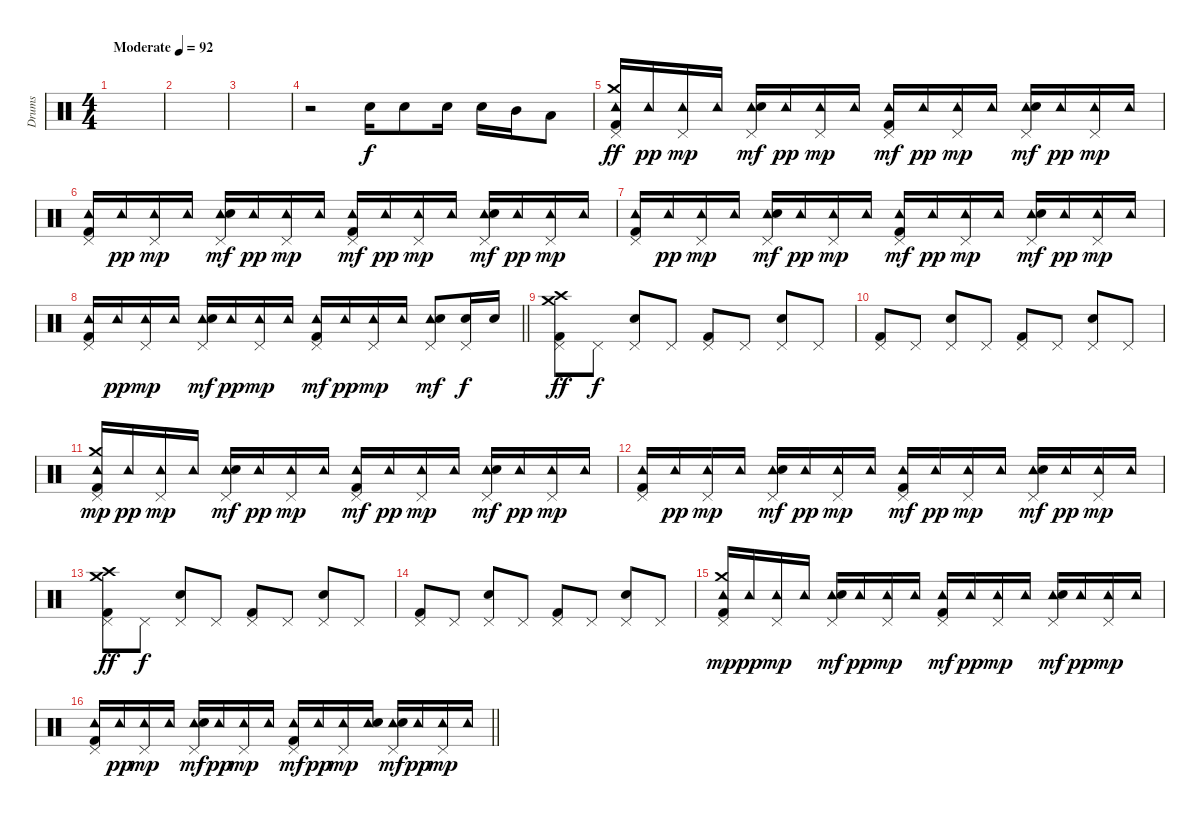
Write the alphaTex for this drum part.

\track ("Drums" "Drums") {instrument percussion}
\staff {score}
\articulation defaults
\ts (4 4)
\tempo (92 "Moderate")
\clef neutral
\ks c
|
|
|
r.2 "Electric Snare (hit)".16 "Electric Snare (hit)".8 "Electric Snare (hit)".16 "Electric Snare (hit)".16 "Mid Tom (hit)".16 "Low Tom (hit)".8 |
("Pedal Hi-Hat (hit)" "Tambourine (hit)" "Crash medium (hit)" "Kick (hit) 2").16{dy ff} "Tambourine (hit)".16{dy pp} ("Pedal Hi-Hat (hit)" "Tambourine (hit)").16{dy mp} "Tambourine (hit)".16 ("Pedal Hi-Hat (hit)" "Tambourine (hit)" "Electric Snare (hit)").16{dy mf} "Tambourine (hit)".16{dy pp} ("Pedal Hi-Hat (hit)" "Tambourine (hit)").16{dy mp} "Tambourine (hit)".16 ("Pedal Hi-Hat (hit)" "Tambourine (hit)" "Kick (hit) 2").16{dy mf} "Tambourine (hit)".16{dy pp} ("Pedal Hi-Hat (hit)" "Tambourine (hit)").16{dy mp} "Tambourine (hit)".16 ("Pedal Hi-Hat (hit)" "Tambourine (hit)" "Electric Snare (hit)").16{dy mf} "Tambourine (hit)".16{dy pp} ("Pedal Hi-Hat (hit)" "Tambourine (hit)").16{dy mp} "Tambourine (hit)".16 |
("Pedal Hi-Hat (hit)" "Tambourine (hit)" "Kick (hit) 2").16 "Tambourine (hit)".16{dy pp} ("Pedal Hi-Hat (hit)" "Tambourine (hit)").16{dy mp} "Tambourine (hit)".16 ("Pedal Hi-Hat (hit)" "Tambourine (hit)" "Electric Snare (hit)").16{dy mf} "Tambourine (hit)".16{dy pp} ("Pedal Hi-Hat (hit)" "Tambourine (hit)").16{dy mp} "Tambourine (hit)".16 ("Pedal Hi-Hat (hit)" "Tambourine (hit)" "Kick (hit) 2").16{dy mf} "Tambourine (hit)".16{dy pp} ("Pedal Hi-Hat (hit)" "Tambourine (hit)").16{dy mp} "Tambourine (hit)".16 ("Pedal Hi-Hat (hit)" "Tambourine (hit)" "Electric Snare (hit)").16{dy mf} "Tambourine (hit)".16{dy pp} ("Pedal Hi-Hat (hit)" "Tambourine (hit)").16{dy mp} "Tambourine (hit)".16 |
("Pedal Hi-Hat (hit)" "Tambourine (hit)" "Kick (hit) 2").16 "Tambourine (hit)".16{dy pp} ("Pedal Hi-Hat (hit)" "Tambourine (hit)").16{dy mp} "Tambourine (hit)".16 ("Pedal Hi-Hat (hit)" "Tambourine (hit)" "Electric Snare (hit)").16{dy mf} "Tambourine (hit)".16{dy pp} ("Pedal Hi-Hat (hit)" "Tambourine (hit)").16{dy mp} "Tambourine (hit)".16 ("Pedal Hi-Hat (hit)" "Tambourine (hit)" "Kick (hit) 2").16{dy mf} "Tambourine (hit)".16{dy pp} ("Pedal Hi-Hat (hit)" "Tambourine (hit)").16{dy mp} "Tambourine (hit)".16 ("Pedal Hi-Hat (hit)" "Tambourine (hit)" "Electric Snare (hit)").16{dy mf} "Tambourine (hit)".16{dy pp} ("Pedal Hi-Hat (hit)" "Tambourine (hit)").16{dy mp} "Tambourine (hit)".16 |
\barLineRight lightlight
("Pedal Hi-Hat (hit)" "Tambourine (hit)" "Kick (hit) 2").16 "Tambourine (hit)".16{dy pp} ("Pedal Hi-Hat (hit)" "Tambourine (hit)").16{dy mp} "Tambourine (hit)".16 ("Pedal Hi-Hat (hit)" "Tambourine (hit)" "Electric Snare (hit)").16{dy mf} "Tambourine (hit)".16{dy pp} ("Pedal Hi-Hat (hit)" "Tambourine (hit)").16{dy mp} "Tambourine (hit)".16 ("Pedal Hi-Hat (hit)" "Tambourine (hit)" "Kick (hit) 2").16{dy mf} "Tambourine (hit)".16{dy pp} ("Pedal Hi-Hat (hit)" "Tambourine (hit)").16{dy mp} "Tambourine (hit)".16 ("Pedal Hi-Hat (hit)" "Tambourine (hit)" "Electric Snare (hit)").8{dy mf} ("Pedal Hi-Hat (hit)" "Electric Snare (hit)").16{dy f} "Electric Snare (hit)".16 |
("Pedal Hi-Hat (hit)" "Crash high (hit)" "Crash medium (hit)" "Kick (hit) 2").8{dy ff} "Pedal Hi-Hat (hit)".8{dy f} ("Pedal Hi-Hat (hit)" "Electric Snare (hit)").8 "Pedal Hi-Hat (hit)".8 ("Pedal Hi-Hat (hit)" "Kick (hit) 2").8 "Pedal Hi-Hat (hit)".8 ("Pedal Hi-Hat (hit)" "Electric Snare (hit)").8 "Pedal Hi-Hat (hit)".8 |
("Pedal Hi-Hat (hit)" "Kick (hit) 2").8 "Pedal Hi-Hat (hit)".8 ("Pedal Hi-Hat (hit)" "Electric Snare (hit)").8 "Pedal Hi-Hat (hit)".8 ("Pedal Hi-Hat (hit)" "Kick (hit) 2").8 "Pedal Hi-Hat (hit)".8 ("Pedal Hi-Hat (hit)" "Electric Snare (hit)").8 "Pedal Hi-Hat (hit)".8 |
("Pedal Hi-Hat (hit)" "Tambourine (hit)" "Crash medium (hit)" "Kick (hit) 2").16{dy mp} "Tambourine (hit)".16{dy pp} ("Pedal Hi-Hat (hit)" "Tambourine (hit)").16{dy mp} "Tambourine (hit)".16 ("Pedal Hi-Hat (hit)" "Tambourine (hit)" "Electric Snare (hit)").16{dy mf} "Tambourine (hit)".16{dy pp} ("Pedal Hi-Hat (hit)" "Tambourine (hit)").16{dy mp} "Tambourine (hit)".16 ("Pedal Hi-Hat (hit)" "Tambourine (hit)" "Kick (hit) 2").16{dy mf} "Tambourine (hit)".16{dy pp} ("Pedal Hi-Hat (hit)" "Tambourine (hit)").16{dy mp} "Tambourine (hit)".16 ("Pedal Hi-Hat (hit)" "Tambourine (hit)" "Electric Snare (hit)").16{dy mf} "Tambourine (hit)".16{dy pp} ("Pedal Hi-Hat (hit)" "Tambourine (hit)").16{dy mp} "Tambourine (hit)".16 |
("Pedal Hi-Hat (hit)" "Tambourine (hit)" "Kick (hit) 2").16 "Tambourine (hit)".16{dy pp} ("Pedal Hi-Hat (hit)" "Tambourine (hit)").16{dy mp} "Tambourine (hit)".16 ("Pedal Hi-Hat (hit)" "Tambourine (hit)" "Electric Snare (hit)").16{dy mf} "Tambourine (hit)".16{dy pp} ("Pedal Hi-Hat (hit)" "Tambourine (hit)").16{dy mp} "Tambourine (hit)".16 ("Pedal Hi-Hat (hit)" "Tambourine (hit)" "Kick (hit) 2").16{dy mf} "Tambourine (hit)".16{dy pp} ("Pedal Hi-Hat (hit)" "Tambourine (hit)").16{dy mp} "Tambourine (hit)".16 ("Pedal Hi-Hat (hit)" "Tambourine (hit)" "Electric Snare (hit)").16{dy mf} "Tambourine (hit)".16{dy pp} ("Pedal Hi-Hat (hit)" "Tambourine (hit)").16{dy mp} "Tambourine (hit)".16 |
("Pedal Hi-Hat (hit)" "Crash high (hit)" "Crash medium (hit)" "Kick (hit) 2").8{dy ff} "Pedal Hi-Hat (hit)".8{dy f} ("Pedal Hi-Hat (hit)" "Electric Snare (hit)").8 "Pedal Hi-Hat (hit)".8 ("Pedal Hi-Hat (hit)" "Kick (hit) 2").8 "Pedal Hi-Hat (hit)".8 ("Pedal Hi-Hat (hit)" "Electric Snare (hit)").8 "Pedal Hi-Hat (hit)".8 |
("Pedal Hi-Hat (hit)" "Kick (hit) 2").8 "Pedal Hi-Hat (hit)".8 ("Pedal Hi-Hat (hit)" "Electric Snare (hit)").8 "Pedal Hi-Hat (hit)".8 ("Pedal Hi-Hat (hit)" "Kick (hit) 2").8 "Pedal Hi-Hat (hit)".8 ("Pedal Hi-Hat (hit)" "Electric Snare (hit)").8 "Pedal Hi-Hat (hit)".8 |
("Pedal Hi-Hat (hit)" "Tambourine (hit)" "Crash medium (hit)" "Kick (hit) 2").16{dy mp} "Tambourine (hit)".16{dy pp} ("Pedal Hi-Hat (hit)" "Tambourine (hit)").16{dy mp} "Tambourine (hit)".16 ("Pedal Hi-Hat (hit)" "Tambourine (hit)" "Electric Snare (hit)").16{dy mf} "Tambourine (hit)".16{dy pp} ("Pedal Hi-Hat (hit)" "Tambourine (hit)").16{dy mp} "Tambourine (hit)".16 ("Pedal Hi-Hat (hit)" "Tambourine (hit)" "Kick (hit) 2").16{dy mf} "Tambourine (hit)".16{dy pp} ("Pedal Hi-Hat (hit)" "Tambourine (hit)").16{dy mp} "Tambourine (hit)".16 ("Pedal Hi-Hat (hit)" "Tambourine (hit)" "Electric Snare (hit)").16{dy mf} "Tambourine (hit)".16{dy pp} ("Pedal Hi-Hat (hit)" "Tambourine (hit)").16{dy mp} "Tambourine (hit)".16 |
\barLineRight lightlight
("Pedal Hi-Hat (hit)" "Tambourine (hit)" "Kick (hit) 2").16 "Tambourine (hit)".16{dy pp} ("Pedal Hi-Hat (hit)" "Tambourine (hit)").16{dy mp} "Tambourine (hit)".16 ("Pedal Hi-Hat (hit)" "Tambourine (hit)" "Electric Snare (hit)").16{dy mf} "Tambourine (hit)".16{dy pp} ("Pedal Hi-Hat (hit)" "Tambourine (hit)").16{dy mp} "Tambourine (hit)".16 ("Pedal Hi-Hat (hit)" "Tambourine (hit)" "Kick (hit) 2").16{dy mf} "Tambourine (hit)".16{dy pp} ("Pedal Hi-Hat (hit)" "Tambourine (hit)").16{dy mp} ("Tambourine (hit)" "Electric Snare (hit)").16 ("Pedal Hi-Hat (hit)" "Tambourine (hit)" "Electric Snare (hit)").16{dy mf} "Tambourine (hit)".16{dy pp} ("Pedal Hi-Hat (hit)" "Tambourine (hit)").16{dy mp} "Tambourine (hit)".16
